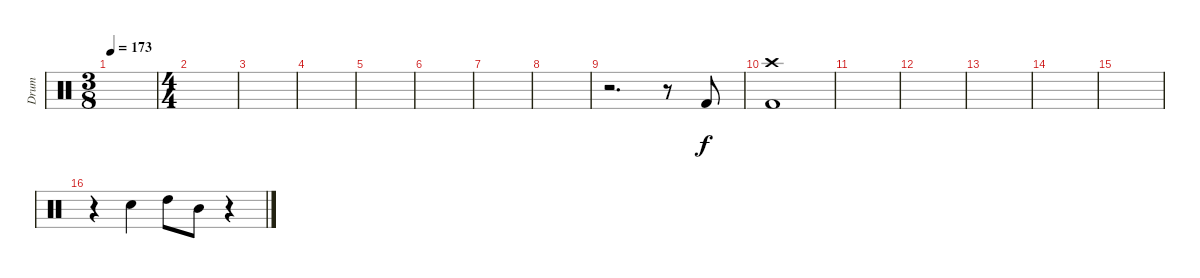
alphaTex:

\track ("Drum" "Drum") {instrument percussion}
\staff {score}
\articulation defaults
\ts (3 8)
\tempo 173
\clef neutral
\ks c
|
\ts (4 4)
|
|
|
|
|
|
|
r.2{d} r.8 "Kick (hit) 2".8 |
("Crash high (hit)" "Kick (hit) 2").1 |
|
|
|
|
|
r.4 "Electric Snare (hit)".4 "High Tom (hit)".8 "Mid Tom (hit)".8 r.4
